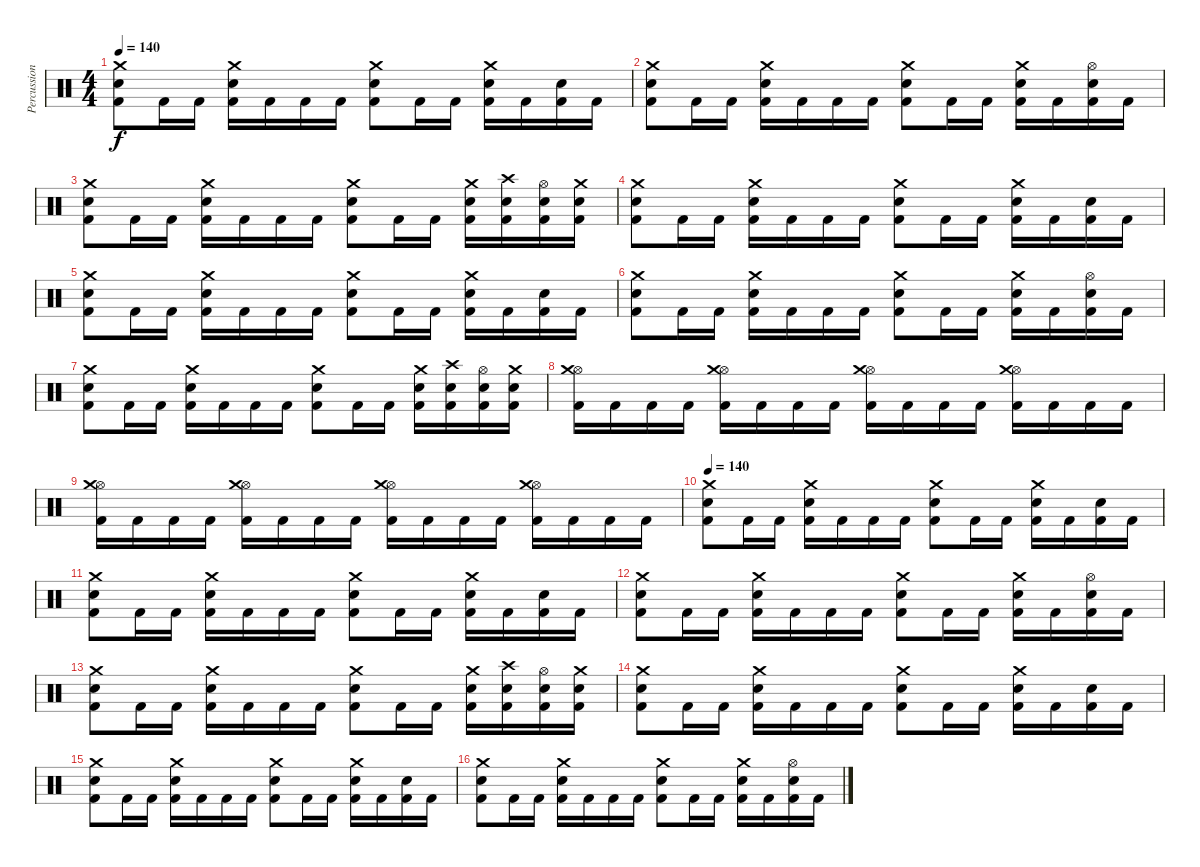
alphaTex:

\track ("Percussion" "Percussion") {instrument percussion}
\staff {score}
\articulation defaults
\ts (4 4)
\tempo 140
\clef neutral
\ks c
("Crash medium (hit)" "Snare (hit) 2" "Kick (hit) 2").8{dy f} "Kick (hit) 2".16 "Kick (hit) 2".16 ("Crash medium (hit)" "Snare (hit) 2" "Kick (hit) 2").16 "Kick (hit) 2".16 "Kick (hit) 2".16 "Kick (hit) 2".16 ("Crash medium (hit)" "Snare (hit) 2" "Kick (hit) 2").8 "Kick (hit) 2".16 "Kick (hit) 2".16 ("Crash medium (hit)" "Snare (hit) 2" "Kick (hit) 2").16 "Kick (hit) 2".16 ("Snare (hit) 2" "Kick (hit) 2").16 "Kick (hit) 2".16 |
("Crash medium (hit)" "Snare (hit) 2" "Kick (hit) 2").8 "Kick (hit) 2".16 "Kick (hit) 2".16 ("Crash medium (hit)" "Snare (hit) 2" "Kick (hit) 2").16 "Kick (hit) 2".16 "Kick (hit) 2".16 "Kick (hit) 2".16 ("Crash medium (hit)" "Snare (hit) 2" "Kick (hit) 2").8 "Kick (hit) 2".16 "Kick (hit) 2".16 ("Crash medium (hit)" "Snare (hit) 2" "Kick (hit) 2").16 "Kick (hit) 2".16 ("Hi-Hat (open)" "Snare (hit) 2" "Kick (hit) 2").16 "Kick (hit) 2".16 |
("Crash medium (hit)" "Snare (hit) 2" "Kick (hit) 2").8 "Kick (hit) 2".16 "Kick (hit) 2".16 ("Crash medium (hit)" "Snare (hit) 2" "Kick (hit) 2").16 "Kick (hit) 2".16 "Kick (hit) 2".16 "Kick (hit) 2".16 ("Crash medium (hit)" "Snare (hit) 2" "Kick (hit) 2").8 "Kick (hit) 2".16 "Kick (hit) 2".16 ("Crash medium (hit)" "Snare (hit) 2" "Kick (hit) 2").16 ("Crash high (hit)" "Snare (hit) 2" "Kick (hit) 2").16 ("Hi-Hat (open)" "Snare (hit) 2" "Kick (hit) 2").16 ("Crash medium (hit)" "Snare (hit) 2" "Kick (hit) 2").16 |
("Crash medium (hit)" "Snare (hit) 2" "Kick (hit) 2").8 "Kick (hit) 2".16 "Kick (hit) 2".16 ("Crash medium (hit)" "Snare (hit) 2" "Kick (hit) 2").16 "Kick (hit) 2".16 "Kick (hit) 2".16 "Kick (hit) 2".16 ("Crash medium (hit)" "Snare (hit) 2" "Kick (hit) 2").8 "Kick (hit) 2".16 "Kick (hit) 2".16 ("Crash medium (hit)" "Snare (hit) 2" "Kick (hit) 2").16 "Kick (hit) 2".16 ("Snare (hit) 2" "Kick (hit) 2").16 "Kick (hit) 2".16 |
("Crash medium (hit)" "Snare (hit) 2" "Kick (hit) 2").8 "Kick (hit) 2".16 "Kick (hit) 2".16 ("Crash medium (hit)" "Snare (hit) 2" "Kick (hit) 2").16 "Kick (hit) 2".16 "Kick (hit) 2".16 "Kick (hit) 2".16 ("Crash medium (hit)" "Snare (hit) 2" "Kick (hit) 2").8 "Kick (hit) 2".16 "Kick (hit) 2".16 ("Crash medium (hit)" "Snare (hit) 2" "Kick (hit) 2").16 "Kick (hit) 2".16 ("Snare (hit) 2" "Kick (hit) 2").16 "Kick (hit) 2".16 |
("Crash medium (hit)" "Snare (hit) 2" "Kick (hit) 2").8 "Kick (hit) 2".16 "Kick (hit) 2".16 ("Crash medium (hit)" "Snare (hit) 2" "Kick (hit) 2").16 "Kick (hit) 2".16 "Kick (hit) 2".16 "Kick (hit) 2".16 ("Crash medium (hit)" "Snare (hit) 2" "Kick (hit) 2").8 "Kick (hit) 2".16 "Kick (hit) 2".16 ("Crash medium (hit)" "Snare (hit) 2" "Kick (hit) 2").16 "Kick (hit) 2".16 ("Hi-Hat (open)" "Snare (hit) 2" "Kick (hit) 2").16 "Kick (hit) 2".16 |
("Crash medium (hit)" "Snare (hit) 2" "Kick (hit) 2").8 "Kick (hit) 2".16 "Kick (hit) 2".16 ("Crash medium (hit)" "Snare (hit) 2" "Kick (hit) 2").16 "Kick (hit) 2".16 "Kick (hit) 2".16 "Kick (hit) 2".16 ("Crash medium (hit)" "Snare (hit) 2" "Kick (hit) 2").8 "Kick (hit) 2".16 "Kick (hit) 2".16 ("Crash medium (hit)" "Snare (hit) 2" "Kick (hit) 2").16 ("Crash high (hit)" "Snare (hit) 2" "Kick (hit) 2").16 ("Hi-Hat (open)" "Snare (hit) 2" "Kick (hit) 2").16 ("Crash medium (hit)" "Snare (hit) 2" "Kick (hit) 2").16 |
("Hi-Hat (open)" "Crash medium (hit)" "Kick (hit) 2").16 "Kick (hit) 2".16 "Kick (hit) 2".16 "Kick (hit) 2".16 ("Hi-Hat (open)" "Crash medium (hit)" "Kick (hit) 2").16 "Kick (hit) 2".16 "Kick (hit) 2".16 "Kick (hit) 2".16 ("Hi-Hat (open)" "Crash medium (hit)" "Kick (hit) 2").16 "Kick (hit) 2".16 "Kick (hit) 2".16 "Kick (hit) 2".16 ("Hi-Hat (open)" "Crash medium (hit)" "Kick (hit) 2").16 "Kick (hit) 2".16 "Kick (hit) 2".16 "Kick (hit) 2".16 |
("Hi-Hat (open)" "Crash medium (hit)" "Kick (hit) 2").16 "Kick (hit) 2".16 "Kick (hit) 2".16 "Kick (hit) 2".16 ("Hi-Hat (open)" "Crash medium (hit)" "Kick (hit) 2").16 "Kick (hit) 2".16 "Kick (hit) 2".16 "Kick (hit) 2".16 ("Hi-Hat (open)" "Crash medium (hit)" "Kick (hit) 2").16 "Kick (hit) 2".16 "Kick (hit) 2".16 "Kick (hit) 2".16 ("Hi-Hat (open)" "Crash medium (hit)" "Kick (hit) 2").16 "Kick (hit) 2".16 "Kick (hit) 2".16 "Kick (hit) 2".16 |
\tempo 140
("Crash medium (hit)" "Snare (hit) 2" "Kick (hit) 2").8 "Kick (hit) 2".16 "Kick (hit) 2".16 ("Crash medium (hit)" "Snare (hit) 2" "Kick (hit) 2").16 "Kick (hit) 2".16 "Kick (hit) 2".16 "Kick (hit) 2".16 ("Crash medium (hit)" "Snare (hit) 2" "Kick (hit) 2").8 "Kick (hit) 2".16 "Kick (hit) 2".16 ("Crash medium (hit)" "Snare (hit) 2" "Kick (hit) 2").16 "Kick (hit) 2".16 ("Snare (hit) 2" "Kick (hit) 2").16 "Kick (hit) 2".16 |
("Crash medium (hit)" "Snare (hit) 2" "Kick (hit) 2").8 "Kick (hit) 2".16 "Kick (hit) 2".16 ("Crash medium (hit)" "Snare (hit) 2" "Kick (hit) 2").16 "Kick (hit) 2".16 "Kick (hit) 2".16 "Kick (hit) 2".16 ("Crash medium (hit)" "Snare (hit) 2" "Kick (hit) 2").8 "Kick (hit) 2".16 "Kick (hit) 2".16 ("Crash medium (hit)" "Snare (hit) 2" "Kick (hit) 2").16 "Kick (hit) 2".16 ("Snare (hit) 2" "Kick (hit) 2").16 "Kick (hit) 2".16 |
("Crash medium (hit)" "Snare (hit) 2" "Kick (hit) 2").8 "Kick (hit) 2".16 "Kick (hit) 2".16 ("Crash medium (hit)" "Snare (hit) 2" "Kick (hit) 2").16 "Kick (hit) 2".16 "Kick (hit) 2".16 "Kick (hit) 2".16 ("Crash medium (hit)" "Snare (hit) 2" "Kick (hit) 2").8 "Kick (hit) 2".16 "Kick (hit) 2".16 ("Crash medium (hit)" "Snare (hit) 2" "Kick (hit) 2").16 "Kick (hit) 2".16 ("Hi-Hat (open)" "Snare (hit) 2" "Kick (hit) 2").16 "Kick (hit) 2".16 |
("Crash medium (hit)" "Snare (hit) 2" "Kick (hit) 2").8 "Kick (hit) 2".16 "Kick (hit) 2".16 ("Crash medium (hit)" "Snare (hit) 2" "Kick (hit) 2").16 "Kick (hit) 2".16 "Kick (hit) 2".16 "Kick (hit) 2".16 ("Crash medium (hit)" "Snare (hit) 2" "Kick (hit) 2").8 "Kick (hit) 2".16 "Kick (hit) 2".16 ("Crash medium (hit)" "Snare (hit) 2" "Kick (hit) 2").16 ("Crash high (hit)" "Snare (hit) 2" "Kick (hit) 2").16 ("Hi-Hat (open)" "Snare (hit) 2" "Kick (hit) 2").16 ("Crash medium (hit)" "Snare (hit) 2" "Kick (hit) 2").16 |
("Crash medium (hit)" "Snare (hit) 2" "Kick (hit) 2").8 "Kick (hit) 2".16 "Kick (hit) 2".16 ("Crash medium (hit)" "Snare (hit) 2" "Kick (hit) 2").16 "Kick (hit) 2".16 "Kick (hit) 2".16 "Kick (hit) 2".16 ("Crash medium (hit)" "Snare (hit) 2" "Kick (hit) 2").8 "Kick (hit) 2".16 "Kick (hit) 2".16 ("Crash medium (hit)" "Snare (hit) 2" "Kick (hit) 2").16 "Kick (hit) 2".16 ("Snare (hit) 2" "Kick (hit) 2").16 "Kick (hit) 2".16 |
("Crash medium (hit)" "Snare (hit) 2" "Kick (hit) 2").8 "Kick (hit) 2".16 "Kick (hit) 2".16 ("Crash medium (hit)" "Snare (hit) 2" "Kick (hit) 2").16 "Kick (hit) 2".16 "Kick (hit) 2".16 "Kick (hit) 2".16 ("Crash medium (hit)" "Snare (hit) 2" "Kick (hit) 2").8 "Kick (hit) 2".16 "Kick (hit) 2".16 ("Crash medium (hit)" "Snare (hit) 2" "Kick (hit) 2").16 "Kick (hit) 2".16 ("Snare (hit) 2" "Kick (hit) 2").16 "Kick (hit) 2".16 |
("Crash medium (hit)" "Snare (hit) 2" "Kick (hit) 2").8 "Kick (hit) 2".16 "Kick (hit) 2".16 ("Crash medium (hit)" "Snare (hit) 2" "Kick (hit) 2").16 "Kick (hit) 2".16 "Kick (hit) 2".16 "Kick (hit) 2".16 ("Crash medium (hit)" "Snare (hit) 2" "Kick (hit) 2").8 "Kick (hit) 2".16 "Kick (hit) 2".16 ("Crash medium (hit)" "Snare (hit) 2" "Kick (hit) 2").16 "Kick (hit) 2".16 ("Hi-Hat (open)" "Snare (hit) 2" "Kick (hit) 2").16 "Kick (hit) 2".16
